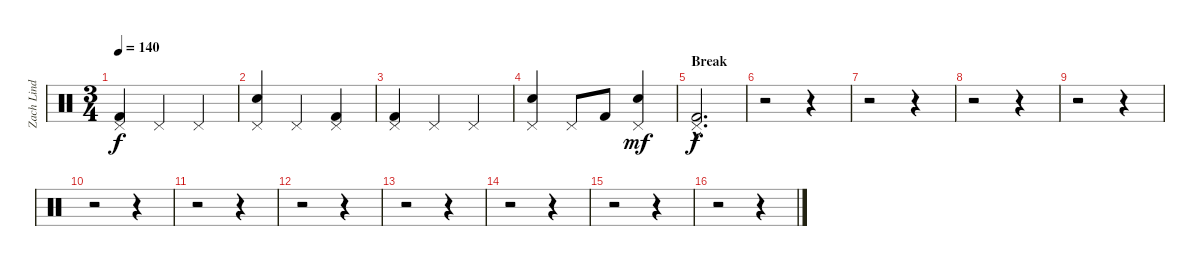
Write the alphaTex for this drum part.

\track ("Zach Lind - Drums" "Zach Lind ") {instrument percussion}
\staff {score}
\articulation defaults
\ts (3 4)
\tempo 140
\clef neutral
\ks c
("Pedal Hi-Hat (hit)" "Kick (hit) 2").4{dy f} "Pedal Hi-Hat (hit)".4 "Pedal Hi-Hat (hit)".4 |
("Pedal Hi-Hat (hit)" "Electric Snare (hit)").4 "Pedal Hi-Hat (hit)".4 ("Pedal Hi-Hat (hit)" "Kick (hit) 2").4 |
("Pedal Hi-Hat (hit)" "Kick (hit) 2").4 "Pedal Hi-Hat (hit)".4 "Pedal Hi-Hat (hit)".4 |
("Pedal Hi-Hat (hit)" "Electric Snare (hit)").4 "Pedal Hi-Hat (hit)".8 "Kick (hit) 2".8 ("Pedal Hi-Hat (hit)" "Electric Snare (hit)").4{dy mf} |
\section ("" "Break")
("Pedal Hi-Hat (hit)"{hac} "Kick (hit) 2"{hac}).2{d dy f} |
r.2 r.4 |
r.2 r.4 |
r.2 r.4 |
r.2 r.4 |
r.2 r.4 |
r.2 r.4 |
r.2 r.4 |
r.2 r.4 |
r.2 r.4 |
r.2 r.4 |
r.2 r.4
